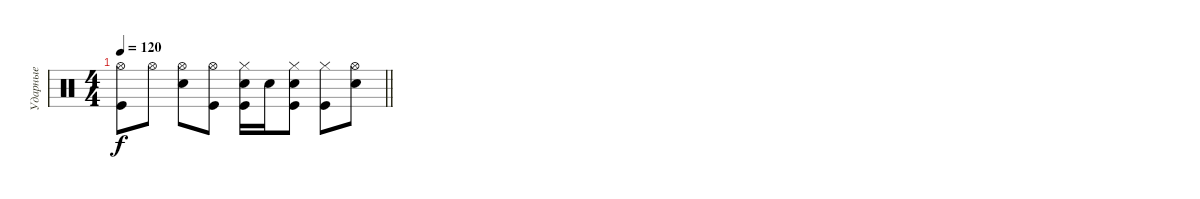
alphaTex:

\track ("Ударные" "Ударные") {instrument percussion}
\staff {score}
\articulation defaults
\ts (4 4)
\tempo 120
\clef neutral
\barLineRight lightlight
\ks c
("Hi-Hat (open)" "Kick (hit)").8{dy f} "Hi-Hat (open)".8 ("Hi-Hat (open)" "Snare (hit) 2").8 ("Hi-Hat (open)" "Kick (hit)").8 ("Hi-Hat (closed)" "Kick (hit)" "Snare (hit) 2").16 "Snare (hit) 2".16 ("Kick (hit)" "Snare (hit) 2" "Hi-Hat (closed)").8 ("Kick (hit)" "Hi-Hat (closed)").8 ("Snare (hit) 2" "Hi-Hat (open)").8
